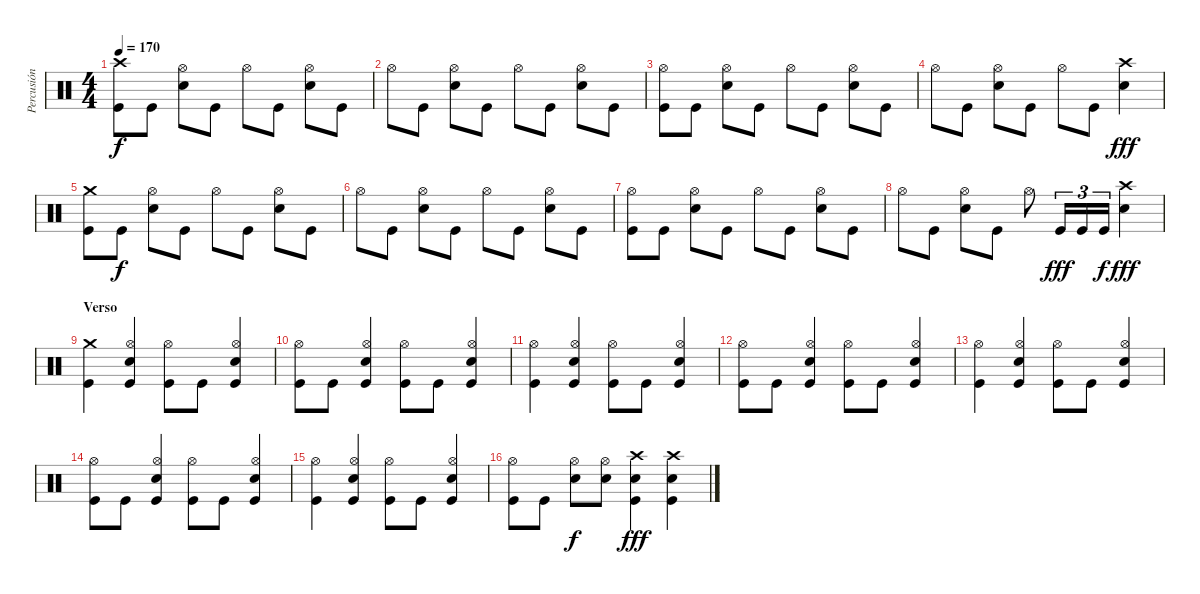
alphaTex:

\track ("Percusión" "Percusión") {instrument percussion}
\staff {score}
\articulation defaults
\ts (4 4)
\tempo 170
\clef neutral
\ks c
("Crash high (hit)" "Kick (hit)").8{dy f} "Kick (hit)".8 ("Hi-Hat (open)" "Electric Snare (hit)").8 "Kick (hit)".8 "Hi-Hat (open)".8 "Kick (hit)".8 ("Hi-Hat (open)" "Electric Snare (hit)").8 "Kick (hit)".8 |
"Hi-Hat (open)".8 "Kick (hit)".8 ("Hi-Hat (open)" "Electric Snare (hit)").8 "Kick (hit)".8 "Hi-Hat (open)".8 "Kick (hit)".8 ("Hi-Hat (open)" "Electric Snare (hit)").8 "Kick (hit)".8 |
("Hi-Hat (open)" "Kick (hit)").8 "Kick (hit)".8 ("Hi-Hat (open)" "Electric Snare (hit)").8 "Kick (hit)".8 "Hi-Hat (open)".8 "Kick (hit)".8 ("Hi-Hat (open)" "Electric Snare (hit)").8 "Kick (hit)".8 |
"Hi-Hat (open)".8 "Kick (hit)".8 ("Hi-Hat (open)" "Electric Snare (hit)").8 "Kick (hit)".8 "Hi-Hat (open)".8 "Kick (hit)".8 ("Crash high (hit)" "Electric Snare (hit)").4{dy fff} |
("Crash medium (hit)" "Kick (hit)").8 "Kick (hit)".8{dy f} ("Hi-Hat (open)" "Electric Snare (hit)").8 "Kick (hit)".8 "Hi-Hat (open)".8 "Kick (hit)".8 ("Hi-Hat (open)" "Electric Snare (hit)").8 "Kick (hit)".8 |
"Hi-Hat (open)".8 "Kick (hit)".8 ("Hi-Hat (open)" "Electric Snare (hit)").8 "Kick (hit)".8 "Hi-Hat (open)".8 "Kick (hit)".8 ("Hi-Hat (open)" "Electric Snare (hit)").8 "Kick (hit)".8 |
("Hi-Hat (open)" "Kick (hit)").8 "Kick (hit)".8 ("Hi-Hat (open)" "Electric Snare (hit)").8 "Kick (hit)".8 "Hi-Hat (open)".8 "Kick (hit)".8 ("Hi-Hat (open)" "Electric Snare (hit)").8 "Kick (hit)".8 |
"Hi-Hat (open)".8 "Kick (hit)".8 ("Hi-Hat (open)" "Electric Snare (hit)").8 "Kick (hit)".8 "Hi-Hat (open)".8 "Kick (hit)".16{tu (3 2) dy fff} "Kick (hit)".16{tu (3 2)} "Kick (hit)".16{tu (3 2) dy f} ("Crash high (hit)" "Electric Snare (hit)").4{dy fff} |
\section ("" "Verso")
("Crash medium (hit)" "Kick (hit)").4 ("Hi-Hat (open)" "Electric Snare (hit)" "Kick (hit)").4 ("Hi-Hat (open)" "Kick (hit)").8 "Kick (hit)".8 ("Hi-Hat (open)" "Electric Snare (hit)" "Kick (hit)").4 |
("Hi-Hat (open)" "Kick (hit)").8 "Kick (hit)".8 ("Hi-Hat (open)" "Electric Snare (hit)" "Kick (hit)").4 ("Hi-Hat (open)" "Kick (hit)").8 "Kick (hit)".8 ("Hi-Hat (open)" "Electric Snare (hit)" "Kick (hit)").4 |
("Hi-Hat (open)" "Kick (hit)").4 ("Hi-Hat (open)" "Electric Snare (hit)" "Kick (hit)").4 ("Hi-Hat (open)" "Kick (hit)").8 "Kick (hit)".8 ("Hi-Hat (open)" "Electric Snare (hit)" "Kick (hit)").4 |
("Hi-Hat (open)" "Kick (hit)").8 "Kick (hit)".8 ("Hi-Hat (open)" "Electric Snare (hit)" "Kick (hit)").4 ("Hi-Hat (open)" "Kick (hit)").8 "Kick (hit)".8 ("Hi-Hat (open)" "Electric Snare (hit)" "Kick (hit)").4 |
("Hi-Hat (open)" "Kick (hit)").4 ("Hi-Hat (open)" "Electric Snare (hit)" "Kick (hit)").4 ("Hi-Hat (open)" "Kick (hit)").8 "Kick (hit)".8 ("Hi-Hat (open)" "Electric Snare (hit)" "Kick (hit)").4 |
("Hi-Hat (open)" "Kick (hit)").8 "Kick (hit)".8 ("Hi-Hat (open)" "Electric Snare (hit)" "Kick (hit)").4 ("Hi-Hat (open)" "Kick (hit)").8 "Kick (hit)".8 ("Hi-Hat (open)" "Electric Snare (hit)" "Kick (hit)").4 |
("Hi-Hat (open)" "Kick (hit)").4 ("Hi-Hat (open)" "Electric Snare (hit)" "Kick (hit)").4 ("Hi-Hat (open)" "Kick (hit)").8 "Kick (hit)".8 ("Hi-Hat (open)" "Electric Snare (hit)" "Kick (hit)").4 |
("Hi-Hat (open)" "Kick (hit)").8 "Kick (hit)".8 ("Hi-Hat (open)" "Electric Snare (hit)").8{dy f} ("Hi-Hat (open)" "Electric Snare (hit)").8 ("Crash high (hit)" "Electric Snare (hit)" "Kick (hit)").4{dy fff} ("Crash high (hit)" "Electric Snare (hit)" "Kick (hit)").4
